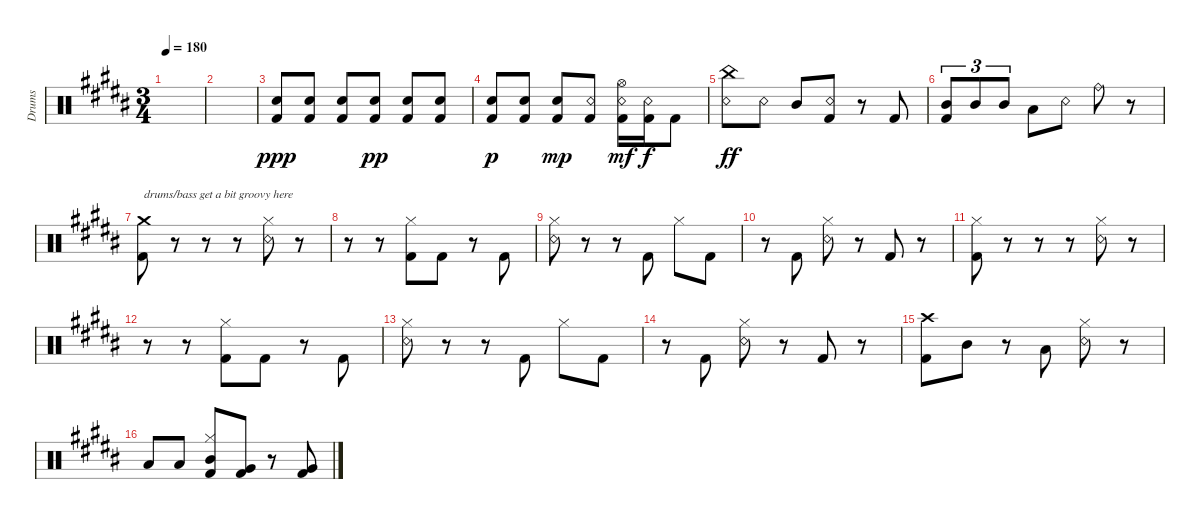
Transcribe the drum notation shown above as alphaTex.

\bracketExtendMode groupsimilarinstruments
\otherSystemsTrackNameOrientation horizontal
\track ("Drumkit" "Drums") {instrument percussion}
\staff {score}
\articulation defaults
\ts (3 4)
\tempo 180
\clef neutral
\ks b
|
|
("Kick (hit) 2"{acc bb} "Snare (hit) 2"{acc bb}).8{dy ppp beam Up} ("Kick (hit) 2"{acc bb} "Snare (hit) 2"{acc bb}).8{beam Up} ("Kick (hit) 2"{acc bb} "Snare (hit) 2"{acc bb}).8{beam Up} ("Kick (hit) 2"{acc bb} "Snare (hit) 2"{acc bb}).8{dy pp beam Up} ("Kick (hit) 2"{acc bb} "Snare (hit) 2"{acc bb}).8{beam Up} ("Kick (hit) 2"{acc bb} "Snare (hit) 2"{acc bb}).8{beam Up} |
("Kick (hit) 2"{acc bb} "Snare (hit) 2"{acc bb}).8{dy p beam Up} ("Kick (hit) 2"{acc bb} "Snare (hit) 2"{acc bb}).8{beam Up} ("Kick (hit) 2"{acc bb} "Snare (hit) 2"{acc bb}).8{dy mp beam Up} ("Kick (hit) 2"{acc bb} "Snare (rim shot)"{acc bb}).8{beam Up} ("Kick (hit) 2"{acc bb} "Snare (rim shot)"{acc bb} "Hi-Hat (open)"{acc bb}).16{dy mf beam Down} ("Kick (hit) 2"{acc bb} "Snare (rim shot)"{acc bb}).16{dy f beam Down} "Kick (hit) 2"{acc bb}.8{beam Down} |
("Snare (rim shot)"{acc bb} "China (hit)"{acc bb}).8{dy ff beam Down} "Snare (rim shot)"{acc bb}.8{beam Down} "Mid Tom (hit)"{acc bb}.8{beam Up} ("Kick (hit) 2"{acc bb} "Snare (rim shot)"{acc bb}).8{beam Up} r.8{beam Up} "Kick (hit) 2"{acc bb}.8{beam Up} |
("Mid Tom (hit)"{acc bb} "Kick (hit) 2"{acc bb}).8{tu (3 2) beam Up} "Mid Tom (hit)"{acc bb}.8{tu (3 2) beam Up} "Mid Tom (hit)"{acc bb}.8{tu (3 2) beam Up} "Low Tom (hit)"{acc bb}.8{beam Down} "Snare (rim shot)"{acc bb}.8{beam Down} "Ride (bell)"{acc bb}.8{beam Down} r.8{beam Down} |
("Kick (hit) 2"{acc bb} "Crash medium (hit)"{acc bb}).8{txt "drums/bass get a bit groovy here" beam Down} r.8{beam Down} r.8{beam Down} r.8{beam Down} ("Snare (rim shot)"{acc bb} "Hi-Hat (closed)"{acc bb}).8{beam Down} r.8{beam Down} |
r.8{beam Down} r.8{beam Down} ("Kick (hit) 2"{acc bb} "Hi-Hat (closed)"{acc bb}).8{beam Down} "Kick (hit) 2"{acc bb}.8{beam Down} r.8{beam Down} "Kick (hit) 2"{acc bb}.8{beam Up} |
("Snare (rim shot)"{acc bb} "Hi-Hat (closed)"{acc bb}).8{beam Down} r.8{beam Down} r.8{beam Down} "Kick (hit) 2"{acc bb}.8{beam Up} "Hi-Hat (closed)"{acc bb}.8{beam Down} "Kick (hit) 2"{acc bb}.8{beam Down} |
r.8{beam Down} "Kick (hit) 2"{acc bb}.8{beam Up} ("Snare (rim shot)"{acc bb} "Hi-Hat (closed)"{acc bb}).8{beam Down} r.8{beam Down} "Kick (hit) 2"{acc bb}.8{beam Up} r.8{beam Up} |
("Kick (hit) 2"{acc bb} "Hi-Hat (closed)"{acc bb}).8{beam Down} r.8{beam Down} r.8{beam Down} r.8{beam Down} ("Snare (rim shot)"{acc bb} "Hi-Hat (closed)"{acc bb}).8{beam Down} r.8{beam Down} |
r.8{beam Down} r.8{beam Down} ("Kick (hit) 2"{acc bb} "Hi-Hat (closed)"{acc bb}).8{beam Down} "Kick (hit) 2"{acc bb}.8{beam Down} r.8{beam Down} "Kick (hit) 2"{acc bb}.8{beam Up} |
("Snare (rim shot)"{acc bb} "Hi-Hat (closed)"{acc bb}).8{beam Down} r.8{beam Down} r.8{beam Down} "Kick (hit) 2"{acc bb}.8{beam Up} "Hi-Hat (closed)"{acc bb}.8{beam Down} "Kick (hit) 2"{acc bb}.8{beam Down} |
r.8{beam Down} "Kick (hit) 2"{acc bb}.8{beam Up} ("Snare (rim shot)"{acc bb} "Hi-Hat (closed)"{acc bb}).8{beam Down} r.8{beam Down} "Kick (hit) 2"{acc bb}.8{beam Up} r.8{beam Up} |
("Crash high (hit)"{acc bb} "Kick (hit) 2"{acc bb}).8{beam Down} "Mid Tom (hit)"{acc bb}.8{beam Down} r.8{beam Down} "Low Tom (hit)"{acc bb}.8{beam Up} ("Snare (rim shot)"{acc bb} "Hi-Hat (closed)"{acc bb}).8{beam Down} r.8{beam Down} |
"Low Tom (hit)"{acc bb}.8{beam Up} "Low Tom (hit)"{acc bb}.8{beam Up} ("Kick (hit) 2"{acc bb} "Hi-Hat (closed)"{acc bb} "Mid Tom (hit)"{acc bb}).8{beam Up} ("Kick (hit) 2"{acc bb} "Very Low Tom (hit)"{acc bb}).8{beam Up} r.8{beam Up} ("Kick (hit) 2"{acc bb} "Very Low Tom (hit)"{acc bb}).8{beam Up}
